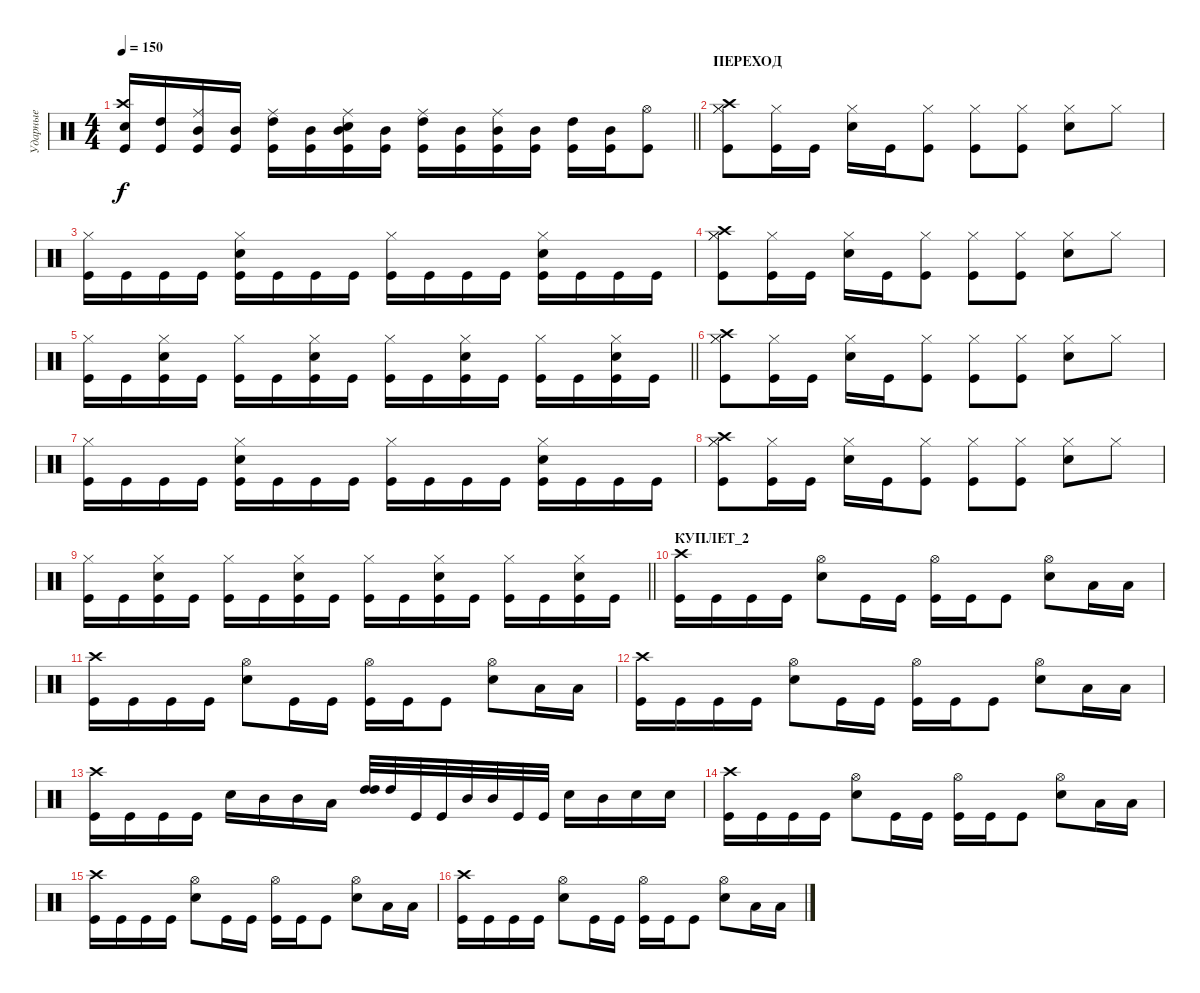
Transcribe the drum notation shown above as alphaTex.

\track ("Ударные" "Ударные") {instrument percussion}
\staff {score}
\articulation defaults
\ts (4 4)
\tempo 150
\clef neutral
\barLineRight lightlight
\ks c
("Kick (hit)" "Crash high (hit)" "Snare (hit) 2").16{dy f} ("Kick (hit)" "High Tom (hit)").16 ("Kick (hit)" "Ride (middle)" "Mid Tom (hit)").16 ("Kick (hit)" "Mid Tom (hit)").16 ("Kick (hit)" "Ride (middle)" "High Tom (hit)").16 ("Kick (hit)" "Mid Tom (hit)").16 ("Kick (hit)" "Snare (hit) 2" "Ride (middle)" "Mid Tom (hit)").16 ("Kick (hit)" "Mid Tom (hit)").16 ("Kick (hit)" "Ride (middle)" "High Tom (hit)").16 ("Kick (hit)" "Mid Tom (hit)").16 ("Kick (hit)" "Ride (middle)" "Mid Tom (hit)").16 ("Kick (hit)" "Mid Tom (hit)").16 ("High Tom (hit)" "Kick (hit)").16 ("Mid Tom (hit)" "Kick (hit)").16 ("Kick (hit)" "Hi-Hat (open)").8 |
\section ("" "ПЕРЕХОД")
("Crash high (hit)" "Kick (hit)" "Hi-Hat (closed)" "Hi-Hat (closed)").8 ("Kick (hit)" "Hi-Hat (closed)").16 "Kick (hit)".16 ("Snare (hit) 2" "Hi-Hat (closed)").16 "Kick (hit)".16 ("Hi-Hat (closed)" "Kick (hit)").8 ("Kick (hit)" "Hi-Hat (closed)").8 ("Hi-Hat (closed)" "Kick (hit)").8 ("Hi-Hat (closed)" "Snare (hit) 2").8 "Hi-Hat (closed)".8 |
("Hi-Hat (closed)" "Kick (hit)").16 "Kick (hit)".16 "Kick (hit)".16 "Kick (hit)".16 ("Kick (hit)" "Hi-Hat (closed)" "Snare (hit) 2").16 "Kick (hit)".16 "Kick (hit)".16 "Kick (hit)".16 ("Kick (hit)" "Hi-Hat (closed)").16 "Kick (hit)".16 "Kick (hit)".16 "Kick (hit)".16 ("Kick (hit)" "Hi-Hat (closed)" "Snare (hit) 2").16 "Kick (hit)".16 "Kick (hit)".16 "Kick (hit)".16 |
("Crash high (hit)" "Kick (hit)" "Hi-Hat (closed)" "Hi-Hat (closed)").8 ("Kick (hit)" "Hi-Hat (closed)").16 "Kick (hit)".16 ("Snare (hit) 2" "Hi-Hat (closed)").16 "Kick (hit)".16 ("Hi-Hat (closed)" "Kick (hit)").8 ("Kick (hit)" "Hi-Hat (closed)").8 ("Hi-Hat (closed)" "Kick (hit)").8 ("Hi-Hat (closed)" "Snare (hit) 2").8 "Hi-Hat (closed)".8 |
\barLineRight lightlight
("Hi-Hat (closed)" "Kick (hit)").16 "Kick (hit)".16 ("Kick (hit)" "Hi-Hat (closed)" "Snare (hit) 2").16 "Kick (hit)".16 ("Kick (hit)" "Hi-Hat (closed)").16 "Kick (hit)".16 ("Kick (hit)" "Snare (hit) 2" "Hi-Hat (closed)").16 "Kick (hit)".16 ("Kick (hit)" "Hi-Hat (closed)").16 "Kick (hit)".16 ("Kick (hit)" "Hi-Hat (closed)" "Snare (hit) 2").16 "Kick (hit)".16 ("Kick (hit)" "Hi-Hat (closed)").16 "Kick (hit)".16 ("Kick (hit)" "Hi-Hat (closed)" "Snare (hit) 2").16 "Kick (hit)".16 |
("Crash high (hit)" "Kick (hit)" "Hi-Hat (closed)" "Hi-Hat (closed)").8 ("Kick (hit)" "Hi-Hat (closed)").16 "Kick (hit)".16 ("Snare (hit) 2" "Hi-Hat (closed)").16 "Kick (hit)".16 ("Hi-Hat (closed)" "Kick (hit)").8 ("Kick (hit)" "Hi-Hat (closed)").8 ("Hi-Hat (closed)" "Kick (hit)").8 ("Hi-Hat (closed)" "Snare (hit) 2").8 "Hi-Hat (closed)".8 |
("Hi-Hat (closed)" "Kick (hit)").16 "Kick (hit)".16 "Kick (hit)".16 "Kick (hit)".16 ("Kick (hit)" "Hi-Hat (closed)" "Snare (hit) 2").16 "Kick (hit)".16 "Kick (hit)".16 "Kick (hit)".16 ("Kick (hit)" "Hi-Hat (closed)").16 "Kick (hit)".16 "Kick (hit)".16 "Kick (hit)".16 ("Kick (hit)" "Hi-Hat (closed)" "Snare (hit) 2").16 "Kick (hit)".16 "Kick (hit)".16 "Kick (hit)".16 |
("Crash high (hit)" "Kick (hit)" "Hi-Hat (closed)" "Hi-Hat (closed)").8 ("Kick (hit)" "Hi-Hat (closed)").16 "Kick (hit)".16 ("Snare (hit) 2" "Hi-Hat (closed)").16 "Kick (hit)".16 ("Hi-Hat (closed)" "Kick (hit)").8 ("Kick (hit)" "Hi-Hat (closed)").8 ("Hi-Hat (closed)" "Kick (hit)").8 ("Hi-Hat (closed)" "Snare (hit) 2").8 "Hi-Hat (closed)".8 |
\barLineRight lightlight
("Hi-Hat (closed)" "Kick (hit)").16 "Kick (hit)".16 ("Kick (hit)" "Hi-Hat (closed)" "Snare (hit) 2").16 "Kick (hit)".16 ("Kick (hit)" "Hi-Hat (closed)").16 "Kick (hit)".16 ("Kick (hit)" "Snare (hit) 2" "Hi-Hat (closed)").16 "Kick (hit)".16 ("Kick (hit)" "Hi-Hat (closed)").16 "Kick (hit)".16 ("Kick (hit)" "Hi-Hat (closed)" "Snare (hit) 2").16 "Kick (hit)".16 ("Kick (hit)" "Hi-Hat (closed)").16 "Kick (hit)".16 ("Kick (hit)" "Hi-Hat (closed)" "Snare (hit) 2").16 "Kick (hit)".16 |
\section ("" "КУПЛЕТ_2")
("Kick (hit)" "Crash high (hit)").16 "Kick (hit)".16 "Kick (hit)".16 "Kick (hit)".16 ("Snare (hit) 2" "Hi-Hat (open)").8 "Kick (hit)".16 "Kick (hit)".16 ("Kick (hit)" "Hi-Hat (open)").16 "Kick (hit)".16 "Kick (hit)".8 ("Hi-Hat (open)" "Snare (hit) 2").8 "Low Tom (hit)".16 "Low Tom (hit)".16 |
("Kick (hit)" "Crash high (hit)").16 "Kick (hit)".16 "Kick (hit)".16 "Kick (hit)".16 ("Snare (hit) 2" "Hi-Hat (open)").8 "Kick (hit)".16 "Kick (hit)".16 ("Kick (hit)" "Hi-Hat (open)").16 "Kick (hit)".16 "Kick (hit)".8 ("Hi-Hat (open)" "Snare (hit) 2").8 "Low Tom (hit)".16 "Low Tom (hit)".16 |
("Kick (hit)" "Crash high (hit)").16 "Kick (hit)".16 "Kick (hit)".16 "Kick (hit)".16 ("Snare (hit) 2" "Hi-Hat (open)").8 "Kick (hit)".16 "Kick (hit)".16 ("Kick (hit)" "Hi-Hat (open)").16 "Kick (hit)".16 "Kick (hit)".8 ("Hi-Hat (open)" "Snare (hit) 2").8 "Low Tom (hit)".16 "Low Tom (hit)".16 |
("Kick (hit)" "Crash high (hit)").16 "Kick (hit)".16 "Kick (hit)".16 "Kick (hit)".16 "Snare (hit) 2".16 "Mid Tom (hit)".16 "Mid Tom (hit)".16 "Low Tom (hit)".16 ("High Tom (hit)" "High Tom (hit)").32 "High Tom (hit)".32 "Kick (hit)".32 "Kick (hit)".32 "Mid Tom (hit)".32 "Mid Tom (hit)".32 "Kick (hit)".32 "Kick (hit)".32 "Snare (hit) 2".16 "Mid Tom (hit)".16 "Snare (hit) 2".16 "Snare (hit) 2".16 |
("Kick (hit)" "Crash high (hit)").16 "Kick (hit)".16 "Kick (hit)".16 "Kick (hit)".16 ("Snare (hit) 2" "Hi-Hat (open)").8 "Kick (hit)".16 "Kick (hit)".16 ("Kick (hit)" "Hi-Hat (open)").16 "Kick (hit)".16 "Kick (hit)".8 ("Hi-Hat (open)" "Snare (hit) 2").8 "Low Tom (hit)".16 "Low Tom (hit)".16 |
("Kick (hit)" "Crash high (hit)").16 "Kick (hit)".16 "Kick (hit)".16 "Kick (hit)".16 ("Snare (hit) 2" "Hi-Hat (open)").8 "Kick (hit)".16 "Kick (hit)".16 ("Kick (hit)" "Hi-Hat (open)").16 "Kick (hit)".16 "Kick (hit)".8 ("Hi-Hat (open)" "Snare (hit) 2").8 "Low Tom (hit)".16 "Low Tom (hit)".16 |
("Kick (hit)" "Crash high (hit)").16 "Kick (hit)".16 "Kick (hit)".16 "Kick (hit)".16 ("Snare (hit) 2" "Hi-Hat (open)").8 "Kick (hit)".16 "Kick (hit)".16 ("Kick (hit)" "Hi-Hat (open)").16 "Kick (hit)".16 "Kick (hit)".8 ("Hi-Hat (open)" "Snare (hit) 2").8 "Low Tom (hit)".16 "Low Tom (hit)".16
